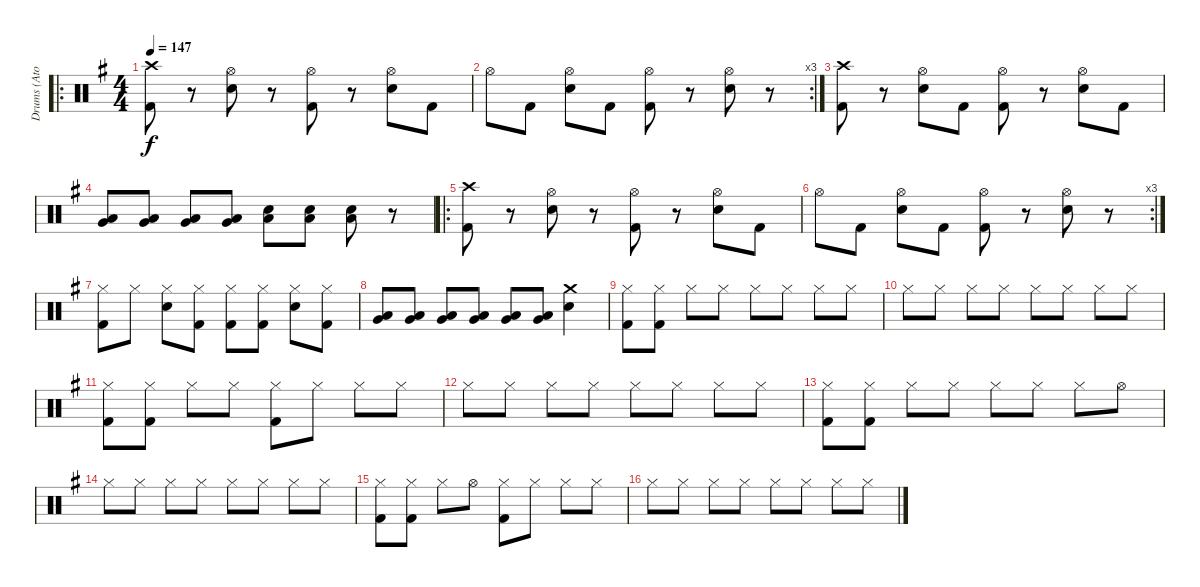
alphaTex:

\track ("Drums (Atom Willard)" "Drums (Ato") {instrument percussion}
\staff {score}
\articulation defaults
\ro
\ts (4 4)
\tempo 147
\clef neutral
\ks g
("Crash high (hit)" "Kick (hit) 2").8{dy f} r.8 ("Hi-Hat (open)" "Snare (hit) 2").8 r.8 ("Hi-Hat (open)" "Kick (hit) 2").8 r.8 ("Hi-Hat (open)" "Snare (hit) 2").8 "Kick (hit) 2".8 |
\rc 3 "Hi-Hat (open)".8 "Kick (hit) 2".8
("Hi-Hat (open)" "Snare (hit) 2").8 "Kick (hit) 2".8 ("Hi-Hat (open)" "Kick (hit) 2").8 r.8 ("Hi-Hat (open)" "Snare (hit) 2").8 r.8 |
("Crash high (hit)" "Kick (hit) 2").8 r.8 ("Hi-Hat (open)" "Snare (hit) 2").8 "Kick (hit) 2".8 ("Hi-Hat (open)" "Kick (hit) 2").8 r.8 ("Hi-Hat (open)" "Snare (hit) 2").8 "Kick (hit) 2".8 |
("Low Floor Tom (hit)" "Very Low Tom (hit)").8 ("Low Floor Tom (hit)" "Very Low Tom (hit)").8 ("Low Floor Tom (hit)" "Very Low Tom (hit)").8 ("Low Floor Tom (hit)" "Very Low Tom (hit)").8 ("Low Floor Tom (hit)" "Snare (hit) 2").8 ("Low Floor Tom (hit)" "Snare (hit) 2").8 ("Low Floor Tom (hit)" "Snare (hit) 2").8 r.8 |
\ro
("Crash high (hit)" "Kick (hit) 2").8 r.8 ("Hi-Hat (open)" "Snare (hit) 2").8 r.8 ("Hi-Hat (open)" "Kick (hit) 2").8 r.8 ("Hi-Hat (open)" "Snare (hit) 2").8 "Kick (hit) 2".8 |
\rc 3 "Hi-Hat (open)".8 "Kick (hit) 2".8
("Hi-Hat (open)" "Snare (hit) 2").8 "Kick (hit) 2".8 ("Hi-Hat (open)" "Kick (hit) 2").8 r.8 ("Hi-Hat (open)" "Snare (hit) 2").8 r.8 |
("Hi-Hat (closed)" "Kick (hit) 2").8 "Hi-Hat (closed)".8 ("Hi-Hat (closed)" "Snare (hit) 2").8 ("Hi-Hat (closed)" "Kick (hit) 2").8 ("Hi-Hat (closed)" "Kick (hit) 2").8 ("Hi-Hat (closed)" "Kick (hit) 2").8 ("Hi-Hat (closed)" "Snare (hit) 2").8 ("Hi-Hat (closed)" "Kick (hit) 2").8 |
("Very Low Tom (hit)" "Low Floor Tom (hit)").8 ("Very Low Tom (hit)" "Low Floor Tom (hit)").8 ("Very Low Tom (hit)" "Low Floor Tom (hit)").8 ("Very Low Tom (hit)" "Low Floor Tom (hit)").8 ("Very Low Tom (hit)" "Low Floor Tom (hit)").8 ("Very Low Tom (hit)" "Low Floor Tom (hit)").8 ("Crash medium (hit)" "Snare (hit) 2").4 |
("Hi-Hat (closed)" "Kick (hit) 2").8 ("Hi-Hat (closed)" "Kick (hit) 2").8 "Hi-Hat (closed)".8 "Hi-Hat (closed)".8 "Hi-Hat (closed)".8 "Hi-Hat (closed)".8 "Hi-Hat (closed)".8 "Hi-Hat (closed)".8 |
"Hi-Hat (closed)".8 "Hi-Hat (closed)".8 "Hi-Hat (closed)".8 "Hi-Hat (closed)".8 "Hi-Hat (closed)".8 "Hi-Hat (closed)".8 "Hi-Hat (closed)".8 "Hi-Hat (closed)".8 |
("Hi-Hat (closed)" "Kick (hit) 2").8 ("Hi-Hat (closed)" "Kick (hit) 2").8 "Hi-Hat (closed)".8 "Hi-Hat (closed)".8 ("Hi-Hat (closed)" "Kick (hit) 2").8 "Hi-Hat (closed)".8 "Hi-Hat (closed)".8 "Hi-Hat (closed)".8 |
"Hi-Hat (closed)".8 "Hi-Hat (closed)".8 "Hi-Hat (closed)".8 "Hi-Hat (closed)".8 "Hi-Hat (closed)".8 "Hi-Hat (closed)".8 "Hi-Hat (closed)".8 "Hi-Hat (closed)".8 |
("Hi-Hat (closed)" "Kick (hit) 2").8 ("Hi-Hat (closed)" "Kick (hit) 2").8 "Hi-Hat (closed)".8 "Hi-Hat (closed)".8 "Hi-Hat (closed)".8 "Hi-Hat (closed)".8 "Hi-Hat (closed)".8 "Hi-Hat (open)".8 |
"Hi-Hat (closed)".8 "Hi-Hat (closed)".8 "Hi-Hat (closed)".8 "Hi-Hat (closed)".8 "Hi-Hat (closed)".8 "Hi-Hat (closed)".8 "Hi-Hat (closed)".8 "Hi-Hat (closed)".8 |
("Hi-Hat (closed)" "Kick (hit) 2").8 ("Hi-Hat (closed)" "Kick (hit) 2").8 "Hi-Hat (closed)".8 "Hi-Hat (open)".8 ("Hi-Hat (closed)" "Kick (hit) 2").8 "Hi-Hat (closed)".8 "Hi-Hat (closed)".8 "Hi-Hat (closed)".8 |
"Hi-Hat (closed)".8 "Hi-Hat (closed)".8 "Hi-Hat (closed)".8 "Hi-Hat (closed)".8 "Hi-Hat (closed)".8 "Hi-Hat (closed)".8 "Hi-Hat (closed)".8 "Hi-Hat (closed)".8
